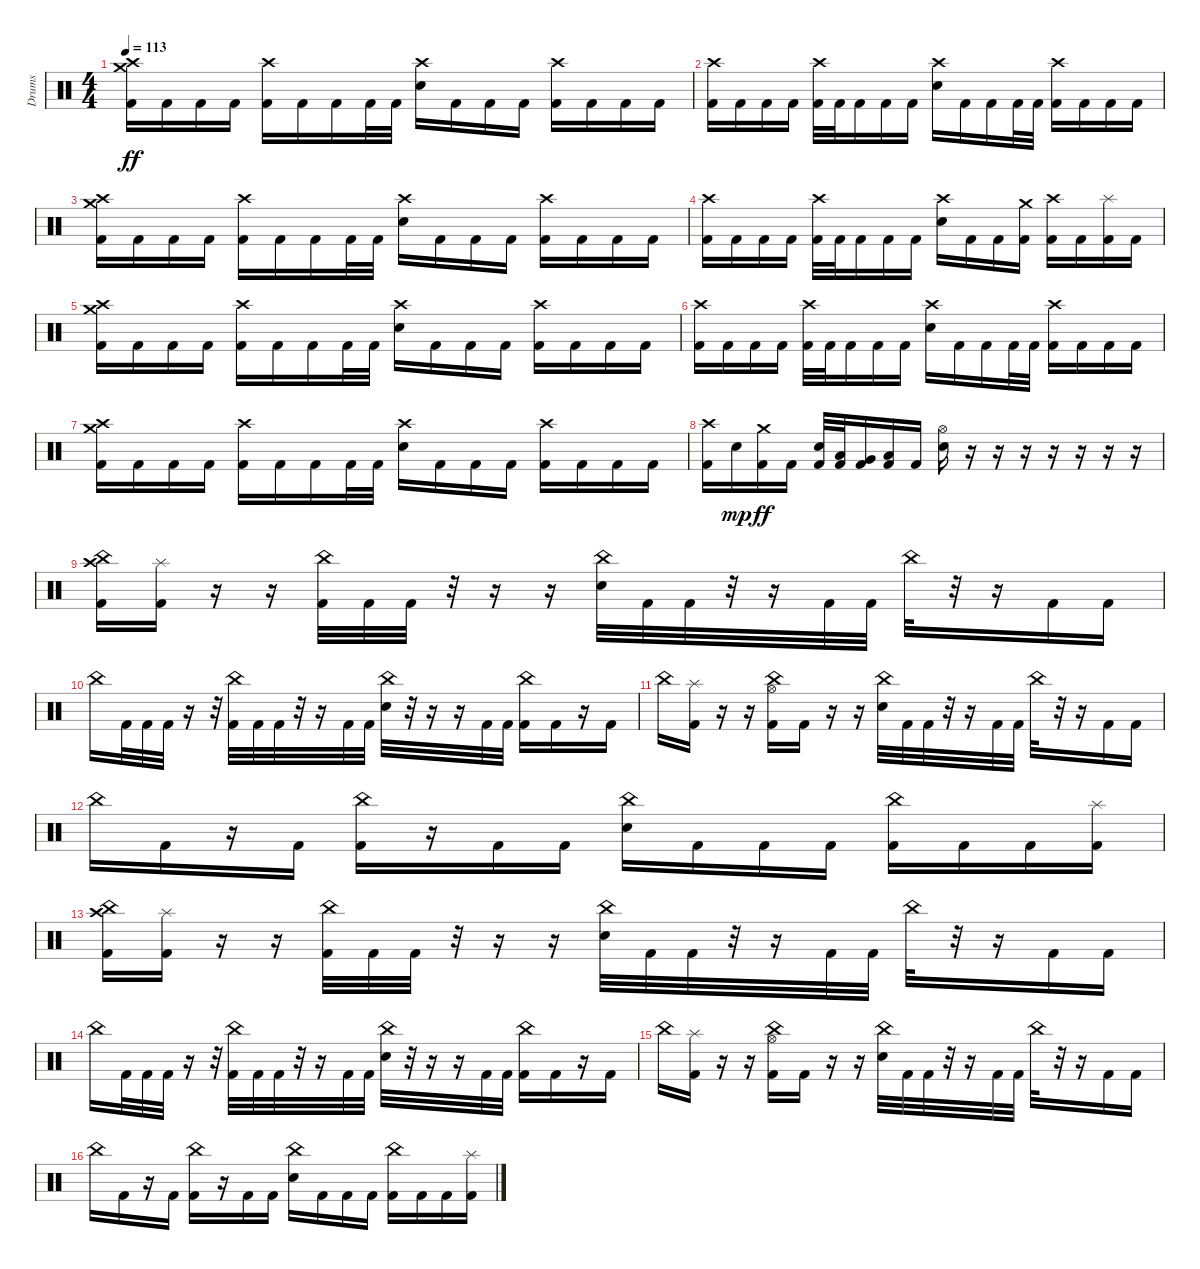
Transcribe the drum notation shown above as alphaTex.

\track ("Drums" "Drums") {instrument percussion}
\staff {score}
\articulation defaults
\ts (4 4)
\tempo 113
\clef neutral
\ks c
("Crash high (hit)" "Crash medium (hit)" "Kick (hit) 2").16{dy ff} "Kick (hit) 2".16 "Kick (hit) 2".16 "Kick (hit) 2".16 ("Crash high (hit)" "Kick (hit) 2").16 "Kick (hit) 2".16 "Kick (hit) 2".16 "Kick (hit) 2".32 "Kick (hit) 2".32 ("Crash high (hit)" "Snare (hit) 2").16 "Kick (hit) 2".16 "Kick (hit) 2".16 "Kick (hit) 2".16 ("Crash high (hit)" "Kick (hit) 2").16 "Kick (hit) 2".16 "Kick (hit) 2".16 "Kick (hit) 2".16 |
("Crash high (hit)" "Kick (hit) 2").16 "Kick (hit) 2".16 "Kick (hit) 2".16 "Kick (hit) 2".16 ("Crash high (hit)" "Kick (hit) 2").32 "Kick (hit) 2".32 "Kick (hit) 2".16 "Kick (hit) 2".16 "Kick (hit) 2".16 ("Crash high (hit)" "Snare (hit) 2").16 "Kick (hit) 2".16 "Kick (hit) 2".16 "Kick (hit) 2".32 "Kick (hit) 2".32 ("Crash high (hit)" "Kick (hit) 2").16 "Kick (hit) 2".16 "Kick (hit) 2".16 "Kick (hit) 2".16 |
("Crash high (hit)" "Crash medium (hit)" "Kick (hit) 2").16 "Kick (hit) 2".16 "Kick (hit) 2".16 "Kick (hit) 2".16 ("Crash high (hit)" "Kick (hit) 2").16 "Kick (hit) 2".16 "Kick (hit) 2".16 "Kick (hit) 2".32 "Kick (hit) 2".32 ("Crash high (hit)" "Snare (hit) 2").16 "Kick (hit) 2".16 "Kick (hit) 2".16 "Kick (hit) 2".16 ("Crash high (hit)" "Kick (hit) 2").16 "Kick (hit) 2".16 "Kick (hit) 2".16 "Kick (hit) 2".16 |
("Crash high (hit)" "Kick (hit) 2").16 "Kick (hit) 2".16 "Kick (hit) 2".16 "Kick (hit) 2".16 ("Crash high (hit)" "Kick (hit) 2").32 "Kick (hit) 2".32 "Kick (hit) 2".16 "Kick (hit) 2".16 "Kick (hit) 2".16 ("Crash high (hit)" "Snare (hit) 2").16 "Kick (hit) 2".16 "Kick (hit) 2".16 ("Crash medium (hit)" "Kick (hit) 2").16 ("Crash high (hit)" "Kick (hit) 2").16 "Kick (hit) 2".16 ("Splash (hit)" "Kick (hit) 2").16 "Kick (hit) 2".16 |
("Crash high (hit)" "Crash medium (hit)" "Kick (hit) 2").16 "Kick (hit) 2".16 "Kick (hit) 2".16 "Kick (hit) 2".16 ("Crash high (hit)" "Kick (hit) 2").16 "Kick (hit) 2".16 "Kick (hit) 2".16 "Kick (hit) 2".32 "Kick (hit) 2".32 ("Crash high (hit)" "Snare (hit) 2").16 "Kick (hit) 2".16 "Kick (hit) 2".16 "Kick (hit) 2".16 ("Crash high (hit)" "Kick (hit) 2").16 "Kick (hit) 2".16 "Kick (hit) 2".16 "Kick (hit) 2".16 |
("Crash high (hit)" "Kick (hit) 2").16 "Kick (hit) 2".16 "Kick (hit) 2".16 "Kick (hit) 2".16 ("Crash high (hit)" "Kick (hit) 2").32 "Kick (hit) 2".32 "Kick (hit) 2".16 "Kick (hit) 2".16 "Kick (hit) 2".16 ("Crash high (hit)" "Snare (hit) 2").16 "Kick (hit) 2".16 "Kick (hit) 2".16 "Kick (hit) 2".32 "Kick (hit) 2".32 ("Crash high (hit)" "Kick (hit) 2").16 "Kick (hit) 2".16 "Kick (hit) 2".16 "Kick (hit) 2".16 |
("Crash high (hit)" "Crash medium (hit)" "Kick (hit) 2").16 "Kick (hit) 2".16 "Kick (hit) 2".16 "Kick (hit) 2".16 ("Crash high (hit)" "Kick (hit) 2").16 "Kick (hit) 2".16 "Kick (hit) 2".16 "Kick (hit) 2".32 "Kick (hit) 2".32 ("Crash high (hit)" "Snare (hit) 2").16 "Kick (hit) 2".16 "Kick (hit) 2".16 "Kick (hit) 2".16 ("Crash high (hit)" "Kick (hit) 2").16 "Kick (hit) 2".16 "Kick (hit) 2".16 "Kick (hit) 2".16 |
("Crash high (hit)" "Kick (hit) 2").16 "Snare (hit) 2".16{dy mp} ("Crash medium (hit)" "Kick (hit) 2").16{dy ff} "Kick (hit) 2".16 ("Snare (hit) 2" "Kick (hit) 2").32 ("Low Tom (hit)" "Kick (hit) 2").32 ("Very Low Tom (hit)" "Kick (hit) 2").16 ("Low Floor Tom (hit)" "Kick (hit) 2").16 "Kick (hit) 2".16 ("Hi-Hat (open)" "Snare (hit) 2").16 r.16 r.16 r.16 r.16 r.16 r.16 r.16 |
("China (hit)" "Crash high (hit)" "Kick (hit) 2").16 ("Splash (hit)" "Kick (hit) 2").16 r.16 r.16 ("China (hit)" "Kick (hit) 2").32 "Kick (hit) 2".32 "Kick (hit) 2".32 r.32 r.16 r.16 ("China (hit)" "Snare (hit) 2").32 "Kick (hit) 2".32 "Kick (hit) 2".32 r.32 r.16 "Kick (hit) 2".32 "Kick (hit) 2".32 "China (hit)".32 r.32 r.16 "Kick (hit) 2".16 "Kick (hit) 2".16 |
"China (hit)".16 "Kick (hit) 2".32 "Kick (hit) 2".32 "Kick (hit) 2".32 r.16 r.32 ("China (hit)" "Kick (hit) 2").32 "Kick (hit) 2".32 "Kick (hit) 2".32 r.32 r.16 "Kick (hit) 2".32 "Kick (hit) 2".32 ("China (hit)" "Snare (hit) 2").32 r.32 r.16 r.16 "Kick (hit) 2".32 "Kick (hit) 2".32 ("China (hit)" "Kick (hit) 2").16 "Kick (hit) 2".16 r.16 "Kick (hit) 2".16 |
"China (hit)".16 ("Splash (hit)" "Kick (hit) 2").16 r.16 r.16 ("China (hit)" "Hi-Hat (open)" "Kick (hit) 2").16 "Kick (hit) 2".16 r.16 r.16 ("China (hit)" "Snare (hit) 2").32 "Kick (hit) 2".32 "Kick (hit) 2".32 r.32 r.16 "Kick (hit) 2".32 "Kick (hit) 2".32 "China (hit)".32 r.32 r.16 "Kick (hit) 2".16 "Kick (hit) 2".16 |
"China (hit)".16 "Kick (hit) 2".16 r.16 "Kick (hit) 2".16 ("China (hit)" "Kick (hit) 2").16 r.16 "Kick (hit) 2".16 "Kick (hit) 2".16 ("China (hit)" "Snare (hit) 2").16 "Kick (hit) 2".16 "Kick (hit) 2".16 "Kick (hit) 2".16 ("China (hit)" "Kick (hit) 2").16 "Kick (hit) 2".16 "Kick (hit) 2".16 ("Splash (hit)" "Kick (hit) 2").16 |
("China (hit)" "Crash high (hit)" "Kick (hit) 2").16 ("Splash (hit)" "Kick (hit) 2").16 r.16 r.16 ("China (hit)" "Kick (hit) 2").32 "Kick (hit) 2".32 "Kick (hit) 2".32 r.32 r.16 r.16 ("China (hit)" "Snare (hit) 2").32 "Kick (hit) 2".32 "Kick (hit) 2".32 r.32 r.16 "Kick (hit) 2".32 "Kick (hit) 2".32 "China (hit)".32 r.32 r.16 "Kick (hit) 2".16 "Kick (hit) 2".16 |
"China (hit)".16 "Kick (hit) 2".32 "Kick (hit) 2".32 "Kick (hit) 2".32 r.16 r.32 ("China (hit)" "Kick (hit) 2").32 "Kick (hit) 2".32 "Kick (hit) 2".32 r.32 r.16 "Kick (hit) 2".32 "Kick (hit) 2".32 ("China (hit)" "Snare (hit) 2").32 r.32 r.16 r.16 "Kick (hit) 2".32 "Kick (hit) 2".32 ("China (hit)" "Kick (hit) 2").16 "Kick (hit) 2".16 r.16 "Kick (hit) 2".16 |
"China (hit)".16 ("Splash (hit)" "Kick (hit) 2").16 r.16 r.16 ("China (hit)" "Hi-Hat (open)" "Kick (hit) 2").16 "Kick (hit) 2".16 r.16 r.16 ("China (hit)" "Snare (hit) 2").32 "Kick (hit) 2".32 "Kick (hit) 2".32 r.32 r.16 "Kick (hit) 2".32 "Kick (hit) 2".32 "China (hit)".32 r.32 r.16 "Kick (hit) 2".16 "Kick (hit) 2".16 |
"China (hit)".16 "Kick (hit) 2".16 r.16 "Kick (hit) 2".16 ("China (hit)" "Kick (hit) 2").16 r.16 "Kick (hit) 2".16 "Kick (hit) 2".16 ("China (hit)" "Snare (hit) 2").16 "Kick (hit) 2".16 "Kick (hit) 2".16 "Kick (hit) 2".16 ("China (hit)" "Kick (hit) 2").16 "Kick (hit) 2".16 "Kick (hit) 2".16 ("Splash (hit)" "Kick (hit) 2").16
